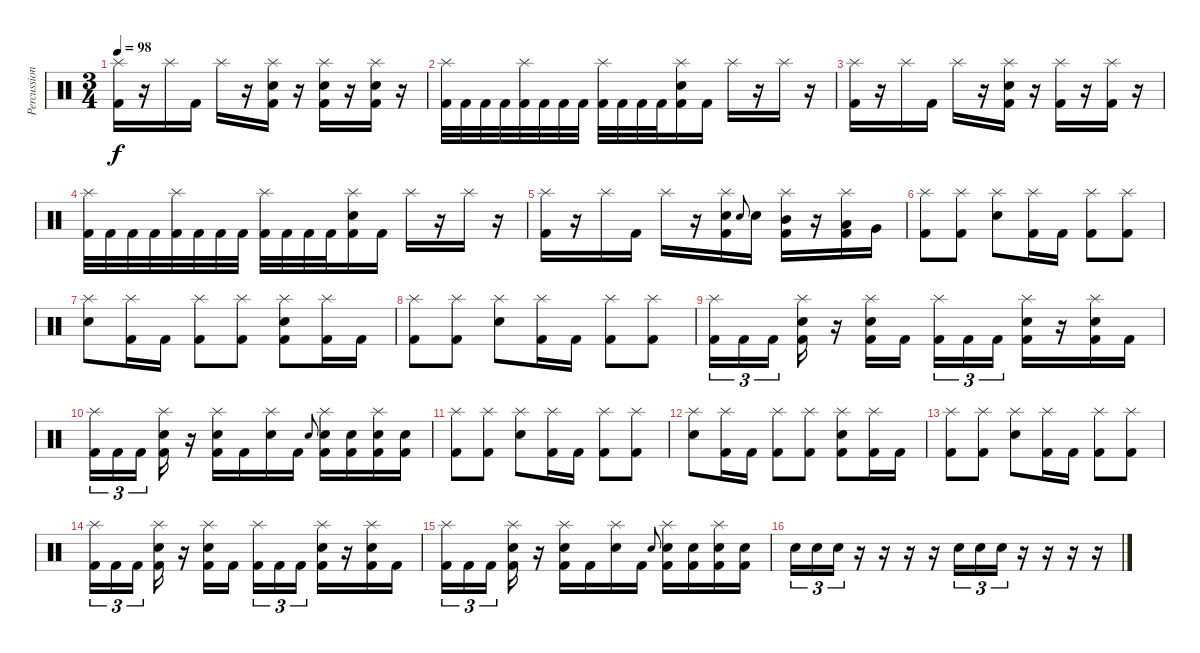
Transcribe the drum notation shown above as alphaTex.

\track ("Percussion" "Percussion") {instrument percussion}
\staff {score}
\articulation defaults
\ts (3 4)
\tempo 98
\clef neutral
\ks c
("Splash (hit)" "Kick (hit) 2").16{dy f} r.16 "Splash (hit)".16 "Kick (hit) 2".16 "Splash (hit)".16 r.16 ("Splash (hit)" "Snare (hit) 2" "Kick (hit) 2").16 r.16 ("Splash (hit)" "Snare (hit) 2" "Kick (hit) 2").16 r.16 ("Splash (hit)" "Snare (hit) 2" "Kick (hit) 2").16 r.16 |
("Splash (hit)" "Kick (hit) 2").32 "Kick (hit) 2".32 "Kick (hit) 2".32 "Kick (hit) 2".32 ("Splash (hit)" "Kick (hit) 2").32 "Kick (hit) 2".32 "Kick (hit) 2".32 "Kick (hit) 2".32 ("Splash (hit)" "Kick (hit) 2").32 "Kick (hit) 2".32 "Kick (hit) 2".32 "Kick (hit) 2".32 ("Splash (hit)" "Snare (hit) 2" "Kick (hit) 2").16 "Kick (hit) 2".16 "Splash (hit)".16 r.16 "Splash (hit)".16 r.16 |
("Splash (hit)" "Kick (hit) 2").16 r.16 "Splash (hit)".16 "Kick (hit) 2".16 "Splash (hit)".16 r.16 ("Splash (hit)" "Snare (hit) 2" "Kick (hit) 2").16 r.16 ("Splash (hit)" "Kick (hit) 2").16 r.16 ("Splash (hit)" "Kick (hit) 2").16 r.16 |
("Splash (hit)" "Kick (hit) 2").32 "Kick (hit) 2".32 "Kick (hit) 2".32 "Kick (hit) 2".32 ("Splash (hit)" "Kick (hit) 2").32 "Kick (hit) 2".32 "Kick (hit) 2".32 "Kick (hit) 2".32 ("Splash (hit)" "Kick (hit) 2").32 "Kick (hit) 2".32 "Kick (hit) 2".32 "Kick (hit) 2".32 ("Splash (hit)" "Snare (hit) 2" "Kick (hit) 2").16 "Kick (hit) 2".16 "Splash (hit)".16 r.16 "Splash (hit)".16 r.16 |
("Splash (hit)" "Kick (hit) 2").16 r.16 "Splash (hit)".16 "Kick (hit) 2".16 "Splash (hit)".16 r.16 ("Splash (hit)" "Snare (hit) 2" "Kick (hit) 2").16 "Snare (hit) 2".8{gr onbeat} "Snare (hit) 2".16 ("Splash (hit)" "Mid Tom (hit)" "Kick (hit) 2").16 r.16 ("Splash (hit)" "Low Tom (hit)" "Kick (hit) 2").16 "Very Low Tom (hit)".16 |
("Splash (hit)" "Kick (hit) 2").8 ("Splash (hit)" "Kick (hit) 2").8 ("Splash (hit)" "Snare (hit) 2").8 ("Splash (hit)" "Kick (hit) 2").16 "Kick (hit) 2".16 ("Splash (hit)" "Kick (hit) 2").8 ("Splash (hit)" "Kick (hit) 2").8 |
("Splash (hit)" "Snare (hit) 2").8 ("Splash (hit)" "Kick (hit) 2").16 "Kick (hit) 2".16 ("Splash (hit)" "Kick (hit) 2").8 ("Splash (hit)" "Kick (hit) 2").8 ("Splash (hit)" "Snare (hit) 2" "Kick (hit) 2").8 ("Splash (hit)" "Kick (hit) 2").16 "Kick (hit) 2".16 |
("Splash (hit)" "Kick (hit) 2").8 ("Splash (hit)" "Kick (hit) 2").8 ("Splash (hit)" "Snare (hit) 2").8 ("Splash (hit)" "Kick (hit) 2").16 "Kick (hit) 2".16 ("Splash (hit)" "Kick (hit) 2").8 ("Splash (hit)" "Kick (hit) 2").8 |
("Splash (hit)" "Kick (hit) 2").16{tu (3 2)} "Kick (hit) 2".16{tu (3 2)} "Kick (hit) 2".16{tu (3 2) beam splitsecondary} ("Splash (hit)" "Snare (hit) 2" "Kick (hit) 2").16 r.16 ("Splash (hit)" "Snare (hit) 2" "Kick (hit) 2").16 "Kick (hit) 2".16{beam splitsecondary} ("Splash (hit)" "Kick (hit) 2").16{tu (3 2)} "Kick (hit) 2".16{tu (3 2)} "Kick (hit) 2".16{tu (3 2)} ("Splash (hit)" "Snare (hit) 2" "Kick (hit) 2").16 r.16 ("Splash (hit)" "Snare (hit) 2" "Kick (hit) 2").16 "Kick (hit) 2".16 |
("Splash (hit)" "Kick (hit) 2").16{tu (3 2)} "Kick (hit) 2".16{tu (3 2)} "Kick (hit) 2".16{tu (3 2) beam splitsecondary} ("Splash (hit)" "Snare (hit) 2" "Kick (hit) 2").16 r.16 ("Splash (hit)" "Snare (hit) 2" "Kick (hit) 2").16 "Kick (hit) 2".16 ("Splash (hit)" "Snare (hit) 2").16 "Kick (hit) 2".16 "Snare (hit) 2".8{gr onbeat} ("Splash (hit)" "Snare (hit) 2" "Kick (hit) 2").16 ("Snare (hit) 2" "Kick (hit) 2").16 ("Splash (hit)" "Snare (hit) 2" "Kick (hit) 2").16 ("Snare (hit) 2" "Kick (hit) 2").16 |
("Splash (hit)" "Kick (hit) 2").8 ("Splash (hit)" "Kick (hit) 2").8 ("Splash (hit)" "Snare (hit) 2").8 ("Splash (hit)" "Kick (hit) 2").16 "Kick (hit) 2".16 ("Splash (hit)" "Kick (hit) 2").8 ("Splash (hit)" "Kick (hit) 2").8 |
("Splash (hit)" "Snare (hit) 2").8 ("Splash (hit)" "Kick (hit) 2").16 "Kick (hit) 2".16 ("Splash (hit)" "Kick (hit) 2").8 ("Splash (hit)" "Kick (hit) 2").8 ("Splash (hit)" "Snare (hit) 2" "Kick (hit) 2").8 ("Splash (hit)" "Kick (hit) 2").16 "Kick (hit) 2".16 |
("Splash (hit)" "Kick (hit) 2").8 ("Splash (hit)" "Kick (hit) 2").8 ("Splash (hit)" "Snare (hit) 2").8 ("Splash (hit)" "Kick (hit) 2").16 "Kick (hit) 2".16 ("Splash (hit)" "Kick (hit) 2").8 ("Splash (hit)" "Kick (hit) 2").8 |
("Splash (hit)" "Kick (hit) 2").16{tu (3 2)} "Kick (hit) 2".16{tu (3 2)} "Kick (hit) 2".16{tu (3 2) beam splitsecondary} ("Splash (hit)" "Snare (hit) 2" "Kick (hit) 2").16 r.16 ("Splash (hit)" "Snare (hit) 2" "Kick (hit) 2").16 "Kick (hit) 2".16{beam splitsecondary} ("Splash (hit)" "Kick (hit) 2").16{tu (3 2)} "Kick (hit) 2".16{tu (3 2)} "Kick (hit) 2".16{tu (3 2)} ("Splash (hit)" "Snare (hit) 2" "Kick (hit) 2").16 r.16 ("Splash (hit)" "Snare (hit) 2" "Kick (hit) 2").16 "Kick (hit) 2".16 |
("Splash (hit)" "Kick (hit) 2").16{tu (3 2)} "Kick (hit) 2".16{tu (3 2)} "Kick (hit) 2".16{tu (3 2) beam splitsecondary} ("Splash (hit)" "Snare (hit) 2" "Kick (hit) 2").16 r.16 ("Splash (hit)" "Snare (hit) 2" "Kick (hit) 2").16 "Kick (hit) 2".16 ("Splash (hit)" "Snare (hit) 2").16 "Kick (hit) 2".16 "Snare (hit) 2".8{gr onbeat} ("Splash (hit)" "Snare (hit) 2" "Kick (hit) 2").16 ("Snare (hit) 2" "Kick (hit) 2").16 ("Splash (hit)" "Snare (hit) 2" "Kick (hit) 2").16 ("Snare (hit) 2" "Kick (hit) 2").16 |
"Snare (hit) 2".16{tu (3 2)} "Snare (hit) 2".16{tu (3 2)} "Snare (hit) 2".16{tu (3 2)} r.16 r.16 r.16 r.16 "Snare (hit) 2".16{tu (3 2)} "Snare (hit) 2".16{tu (3 2)} "Snare (hit) 2".16{tu (3 2)} r.16 r.16 r.16 r.16
